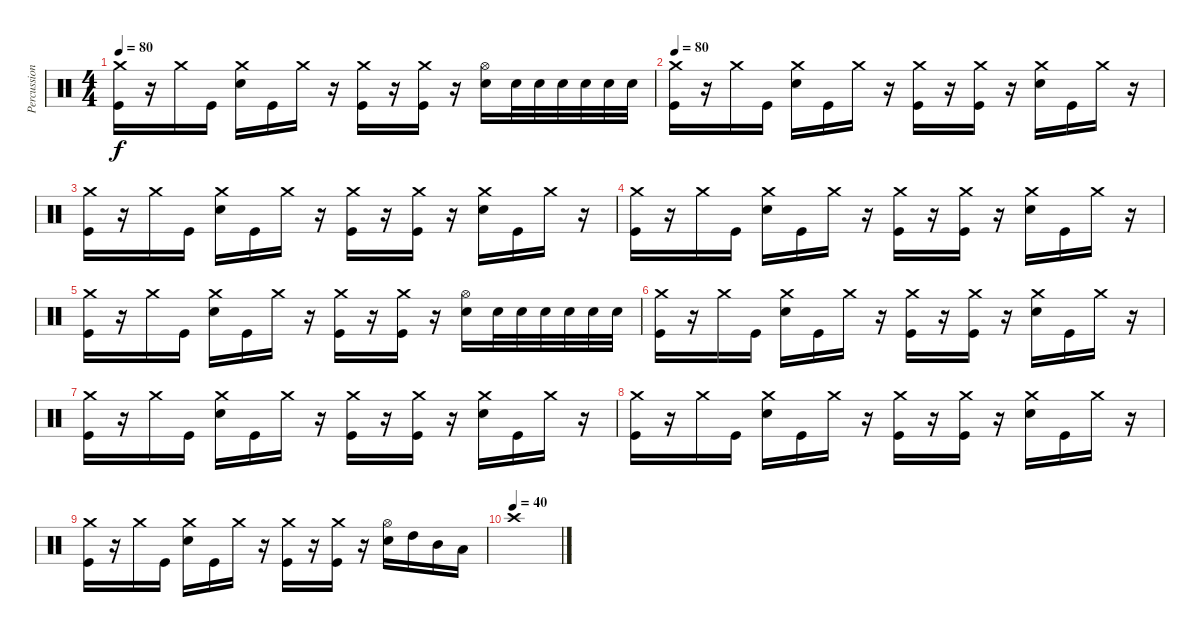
\track ("Percussion" "Percussion") {instrument percussion}
\staff {score}
\articulation defaults
\ts (4 4)
\tempo 80
\clef neutral
\ks c
("Crash medium (hit)" "Kick (hit)").16{dy f} r.16 "Crash medium (hit)".16 "Kick (hit)".16 ("Crash medium (hit)" "Snare (hit) 2").16 "Kick (hit)".16 "Crash medium (hit)".16 r.16 ("Crash medium (hit)" "Kick (hit)").16 r.16 ("Crash medium (hit)" "Kick (hit)").16 r.16 ("Hi-Hat (open)" "Snare (hit) 2").16 "Snare (hit) 2".32 "Snare (hit) 2".32 "Snare (hit) 2".32 "Snare (hit) 2".32 "Snare (hit) 2".32 "Snare (hit) 2".32 |
\tempo 80
("Crash medium (hit)" "Kick (hit)").16 r.16 "Crash medium (hit)".16 "Kick (hit)".16 ("Crash medium (hit)" "Snare (hit) 2").16 "Kick (hit)".16 "Crash medium (hit)".16 r.16 ("Crash medium (hit)" "Kick (hit)").16 r.16 ("Crash medium (hit)" "Kick (hit)").16 r.16 ("Crash medium (hit)" "Snare (hit) 2").16 "Kick (hit)".16 "Crash medium (hit)".16 r.16 |
("Crash medium (hit)" "Kick (hit)").16 r.16 "Crash medium (hit)".16 "Kick (hit)".16 ("Crash medium (hit)" "Snare (hit) 2").16 "Kick (hit)".16 "Crash medium (hit)".16 r.16 ("Crash medium (hit)" "Kick (hit)").16 r.16 ("Crash medium (hit)" "Kick (hit)").16 r.16 ("Crash medium (hit)" "Snare (hit) 2").16 "Kick (hit)".16 "Crash medium (hit)".16 r.16 |
("Crash medium (hit)" "Kick (hit)").16 r.16 "Crash medium (hit)".16 "Kick (hit)".16 ("Crash medium (hit)" "Snare (hit) 2").16 "Kick (hit)".16 "Crash medium (hit)".16 r.16 ("Crash medium (hit)" "Kick (hit)").16 r.16 ("Crash medium (hit)" "Kick (hit)").16 r.16 ("Crash medium (hit)" "Snare (hit) 2").16 "Kick (hit)".16 "Crash medium (hit)".16 r.16 |
("Crash medium (hit)" "Kick (hit)").16 r.16 "Crash medium (hit)".16 "Kick (hit)".16 ("Crash medium (hit)" "Snare (hit) 2").16 "Kick (hit)".16 "Crash medium (hit)".16 r.16 ("Crash medium (hit)" "Kick (hit)").16 r.16 ("Crash medium (hit)" "Kick (hit)").16 r.16 ("Hi-Hat (open)" "Snare (hit) 2").16 "Snare (hit) 2".32 "Snare (hit) 2".32 "Snare (hit) 2".32 "Snare (hit) 2".32 "Snare (hit) 2".32 "Snare (hit) 2".32 |
("Crash medium (hit)" "Kick (hit)").16 r.16 "Crash medium (hit)".16 "Kick (hit)".16 ("Crash medium (hit)" "Snare (hit) 2").16 "Kick (hit)".16 "Crash medium (hit)".16 r.16 ("Crash medium (hit)" "Kick (hit)").16 r.16 ("Crash medium (hit)" "Kick (hit)").16 r.16 ("Crash medium (hit)" "Snare (hit) 2").16 "Kick (hit)".16 "Crash medium (hit)".16 r.16 |
("Crash medium (hit)" "Kick (hit)").16 r.16 "Crash medium (hit)".16 "Kick (hit)".16 ("Crash medium (hit)" "Snare (hit) 2").16 "Kick (hit)".16 "Crash medium (hit)".16 r.16 ("Crash medium (hit)" "Kick (hit)").16 r.16 ("Crash medium (hit)" "Kick (hit)").16 r.16 ("Crash medium (hit)" "Snare (hit) 2").16 "Kick (hit)".16 "Crash medium (hit)".16 r.16 |
("Crash medium (hit)" "Kick (hit)").16 r.16 "Crash medium (hit)".16 "Kick (hit)".16 ("Crash medium (hit)" "Snare (hit) 2").16 "Kick (hit)".16 "Crash medium (hit)".16 r.16 ("Crash medium (hit)" "Kick (hit)").16 r.16 ("Crash medium (hit)" "Kick (hit)").16 r.16 ("Crash medium (hit)" "Snare (hit) 2").16 "Kick (hit)".16 "Crash medium (hit)".16 r.16 |
("Crash medium (hit)" "Kick (hit)").16 r.16 "Crash medium (hit)".16 "Kick (hit)".16 ("Crash medium (hit)" "Snare (hit) 2").16 "Kick (hit)".16 "Crash medium (hit)".16 r.16 ("Crash medium (hit)" "Kick (hit)").16 r.16 ("Crash medium (hit)" "Kick (hit)").16 r.16 ("Hi-Hat (open)" "Snare (hit) 2").16 "High Tom (hit)".16 "Mid Tom (hit)".16 "Low Tom (hit)".16 |
\tempo (40)
"Crash high (hit)".1
